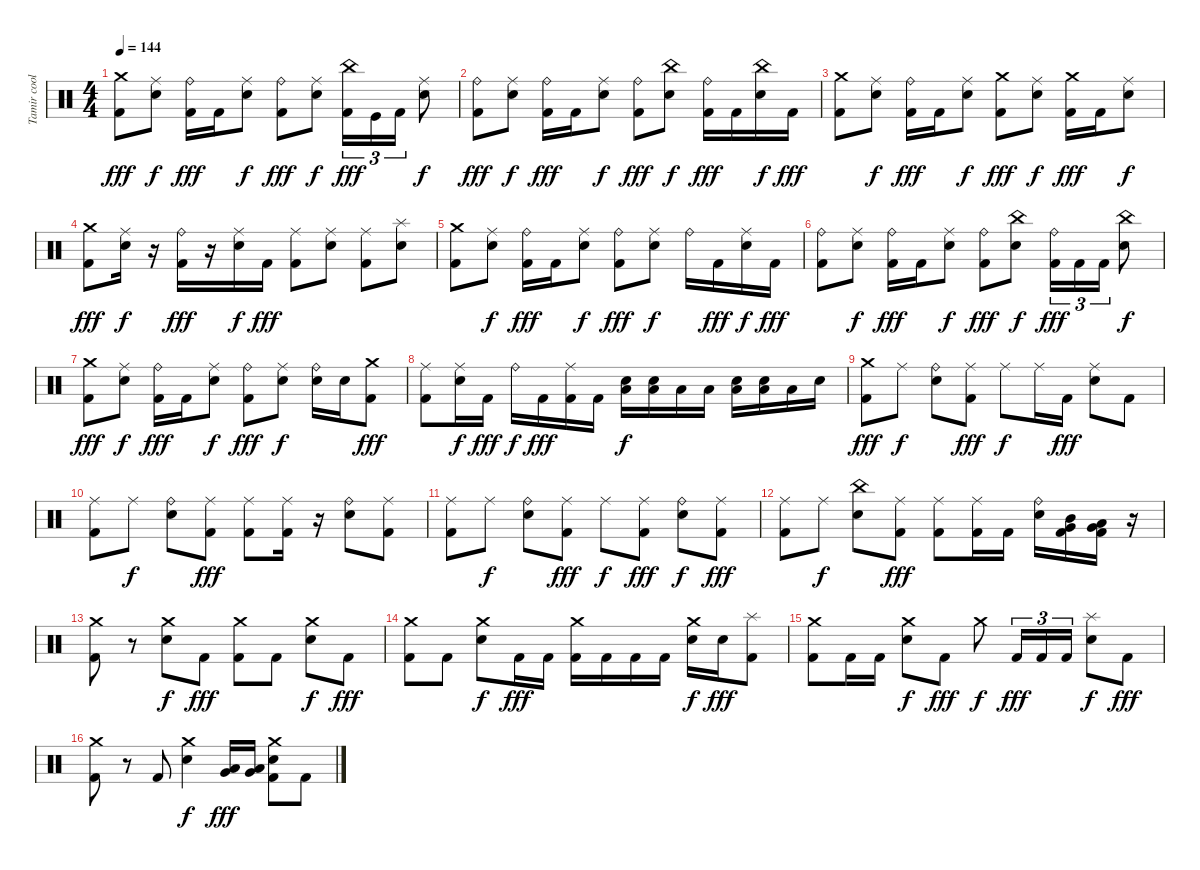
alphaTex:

\track ("Tamir coolberg" "Tamir cool") {instrument percussion}
\staff {score}
\articulation defaults
\ts (4 4)
\tempo 144
\clef neutral
\ks c
("Crash medium (hit)" "Kick (hit) 2").8{dy fff} ("Ride (middle)" "Snare (hit) 2").8{dy f} ("Ride (bell)" "Kick (hit) 2").16{dy fff} "Kick (hit) 2".16 ("Ride (middle)" "Snare (hit) 2").8{dy f} ("Ride (bell)" "Kick (hit) 2").8{dy fff} ("Ride (middle)" "Snare (hit) 2").8{dy f} ("China (hit)" "Kick (hit) 2").16{tu (3 2) dy fff} "Kick (hit)".16{tu (3 2)} "Kick (hit) 2".16{tu (3 2)} ("Ride (middle)" "Snare (hit) 2").8{dy f} |
("Ride (bell)" "Kick (hit) 2").8{dy fff} ("Ride (middle)" "Snare (hit) 2").8{dy f} ("Ride (bell)" "Kick (hit) 2").16{dy fff} "Kick (hit) 2".16 ("Ride (middle)" "Snare (hit) 2").8{dy f} ("Ride (bell)" "Kick (hit) 2").8{dy fff} ("China (hit)" "Snare (hit) 2").8{dy f} ("Ride (bell)" "Kick (hit) 2").16{dy fff} "Kick (hit) 2".16 ("China (hit)" "Snare (hit) 2").16{dy f} "Kick (hit) 2".16{dy fff} |
("Crash medium (hit)" "Kick (hit) 2").8 ("Ride (middle)" "Snare (hit) 2").8{dy f} ("Ride (bell)" "Kick (hit) 2").16{dy fff} "Kick (hit) 2".16 ("Ride (middle)" "Snare (hit) 2").8{dy f} ("Crash medium (hit)" "Kick (hit) 2").8{dy fff} ("Ride (middle)" "Snare (hit) 2").8{dy f} ("Crash medium (hit)" "Kick (hit) 2").16{dy fff} "Kick (hit) 2".16 ("Ride (middle)" "Snare (hit) 2").8{dy f} |
("Crash medium (hit)" "Kick (hit) 2").8{dy fff} ("Ride (middle)" "Snare (hit) 2").16{dy f} r.16 ("Ride (bell)" "Kick (hit) 2").16{dy fff} r.16 ("Ride (middle)" "Snare (hit) 2").16{dy f} "Kick (hit) 2".16{dy fff} ("Ride (middle)" "Kick (hit) 2").8 ("Ride (middle)" "Snare (hit) 2").8 ("Ride (middle)" "Kick (hit) 2").8 ("Splash (hit)" "Snare (hit) 2").8 |
("Crash medium (hit)" "Kick (hit) 2").8 ("Ride (middle)" "Snare (hit) 2").8{dy f} ("Ride (bell)" "Kick (hit) 2").16{dy fff} "Kick (hit) 2".16 ("Ride (middle)" "Snare (hit) 2").8{dy f} ("Ride (bell)" "Kick (hit) 2").8{dy fff} ("Ride (middle)" "Snare (hit) 2").8{dy f} "Ride (bell)".16 "Kick (hit) 2".16{dy fff} ("Ride (middle)" "Snare (hit) 2").16{dy f} "Kick (hit) 2".16{dy fff} |
("Ride (bell)" "Kick (hit) 2").8 ("Ride (middle)" "Snare (hit) 2").8{dy f} ("Ride (bell)" "Kick (hit) 2").16{dy fff} "Kick (hit) 2".16 ("Ride (middle)" "Snare (hit) 2").8{dy f} ("Ride (bell)" "Kick (hit) 2").8{dy fff} ("China (hit)" "Snare (hit) 2").8{dy f} ("Ride (bell)" "Kick (hit) 2").16{tu (3 2) dy fff} "Kick (hit) 2".16{tu (3 2)} "Kick (hit) 2".16{tu (3 2)} ("China (hit)" "Snare (hit) 2").8{dy f} |
("Crash medium (hit)" "Kick (hit) 2").8{dy fff} ("Ride (middle)" "Snare (hit) 2").8{dy f} ("Ride (bell)" "Kick (hit) 2").16{dy fff} "Kick (hit) 2".16 ("Ride (middle)" "Snare (hit) 2").8{dy f} ("Ride (bell)" "Kick (hit) 2").8{dy fff} ("Ride (middle)" "Snare (hit) 2").8{dy f} ("Ride (bell)" "Snare (hit) 2").16 "Snare (hit) 2".16 ("Crash medium (hit)" "Kick (hit) 2").8{dy fff} |
("Ride (middle)" "Kick (hit) 2").8 ("Ride (middle)" "Snare (hit) 2").16{dy f} "Kick (hit) 2".16{dy fff} "Ride (bell)".16{dy f} "Kick (hit) 2".16{dy fff} ("Ride (middle)" "Kick (hit) 2").16 "Kick (hit) 2".16 ("Low Tom (hit)" "Electric Snare (hit)").16{dy f} ("Low Tom (hit)" "Electric Snare (hit)").16 "Low Floor Tom (hit)".16 "Low Floor Tom (hit)".16 ("Low Tom (hit)" "Electric Snare (hit)").16 ("Low Tom (hit)" "Electric Snare (hit)").16 "Low Floor Tom (hit)".16 "Snare (hit)".16 |
("Crash medium (hit)" "Kick (hit) 2").8{dy fff} "Ride (middle)".8{dy f} ("Ride (bell)" "Electric Snare (hit)").8 ("Ride (middle)" "Kick (hit) 2").8{dy fff} "Ride (middle)".8{dy f} "Ride (middle)".16 "Kick (hit) 2".16{dy fff} ("Ride (middle)" "Electric Snare (hit)").8 "Kick (hit) 2".8 |
("Ride (middle)" "Kick (hit) 2").8 "Ride (middle)".8{dy f} ("Ride (bell)" "Electric Snare (hit)").8 ("Ride (middle)" "Kick (hit) 2").8{dy fff} ("Ride (middle)" "Kick (hit) 2").8 ("Ride (middle)" "Kick (hit) 2").16 r.16 ("Ride (bell)" "Electric Snare (hit)").8 ("Ride (middle)" "Kick (hit) 2").8 |
("Ride (middle)" "Kick (hit) 2").8 "Ride (middle)".8{dy f} ("Ride (bell)" "Electric Snare (hit)").8 ("Ride (middle)" "Kick (hit) 2").8{dy fff} "Ride (middle)".8{dy f} ("Ride (middle)" "Kick (hit) 2").8{dy fff} ("Ride (bell)" "Electric Snare (hit)").8{dy f} ("Ride (middle)" "Kick (hit) 2").8{dy fff} |
("Ride (middle)" "Kick (hit) 2").8 "Ride (middle)".8{dy f} ("China (hit)" "Electric Snare (hit)").8 ("Ride (middle)" "Kick (hit) 2").8{dy fff} ("Ride (middle)" "Kick (hit) 2").8 ("Ride (middle)" "Kick (hit) 2").16 "Kick (hit) 2".16 ("Ride (bell)" "Electric Snare (hit)").16 ("Mid Tom (hit)" "Very Low Tom (hit)" "Kick (hit) 2").16 ("Low Tom (hit)" "Very Low Tom (hit)" "Kick (hit) 2").16 r.16 |
("Crash medium (hit)" "Kick (hit) 2").8 r.8 ("Crash medium (hit)" "Electric Snare (hit)").8{dy f} "Kick (hit) 2".8{dy fff} ("Crash medium (hit)" "Kick (hit) 2").8 "Kick (hit) 2".8 ("Crash medium (hit)" "Electric Snare (hit)").8{dy f} "Kick (hit) 2".8{dy fff} |
("Crash medium (hit)" "Kick (hit) 2").8 "Kick (hit) 2".8 ("Crash medium (hit)" "Electric Snare (hit)").8{dy f} "Kick (hit) 2".16{dy fff} "Kick (hit) 2".16 ("Crash medium (hit)" "Kick (hit) 2").16 "Kick (hit) 2".16 "Kick (hit) 2".16 "Kick (hit) 2".16 ("Crash medium (hit)" "Electric Snare (hit)").16{dy f} "Electric Snare (hit)".16{dy fff} ("Splash (hit)" "Kick (hit) 2").8 |
("Crash medium (hit)" "Kick (hit) 2").8 "Kick (hit) 2".16 "Kick (hit) 2".16 ("Crash medium (hit)" "Electric Snare (hit)").8{dy f} "Kick (hit) 2".8{dy fff} "Crash medium (hit)".8{dy f} "Kick (hit) 2".16{tu (3 2) dy fff} "Kick (hit) 2".16{tu (3 2)} "Kick (hit) 2".16{tu (3 2)} ("Splash (hit)" "Electric Snare (hit)").8{dy f} "Kick (hit) 2".8{dy fff} |
("Crash medium (hit)" "Kick (hit) 2").8 r.8 "Kick (hit) 2".8 ("Crash medium (hit)" "Electric Snare (hit)").4{dy f} ("Low Tom (hit)" "Very Low Tom (hit)").16{dy fff} ("Low Tom (hit)" "Very Low Tom (hit)").16 ("Crash medium (hit)" "Electric Snare (hit)" "Kick (hit) 2").8 "Kick (hit) 2".8
